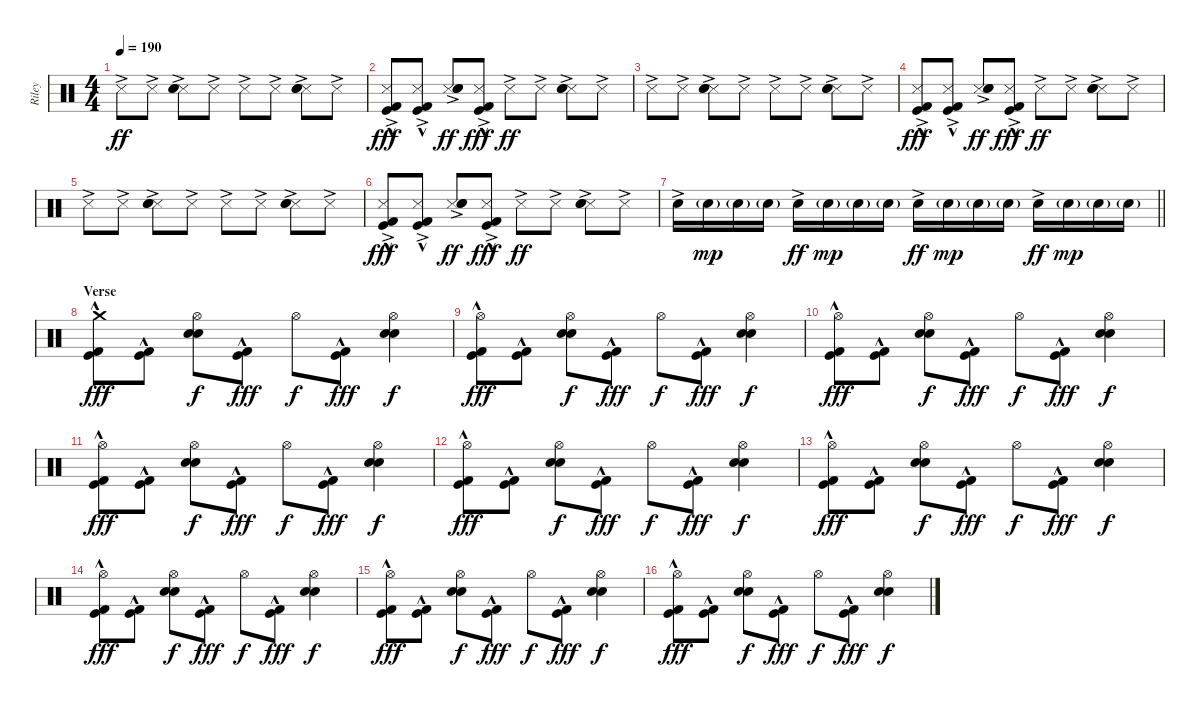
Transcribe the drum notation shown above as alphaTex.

\track ("Riley" "Riley") {instrument percussion}
\staff {score}
\articulation defaults
\ts (4 4)
\tempo 190
\clef neutral
\ks c "Snare (side stick) 3"{ac}.8{dy ff} "Snare (side stick) 3"{ac}.8
("Snare (side stick) 3"{ac} "Electric Snare (hit)" "Snare (hit) 2").8 "Snare (side stick) 3"{ac}.8 "Snare (side stick) 3"{ac}.8 "Snare (side stick) 3"{ac}.8 ("Snare (side stick) 3"{ac} "Electric Snare (hit)" "Snare (hit) 2").8 "Snare (side stick) 3"{ac}.8 |
("Snare (side stick) 3"{ac} "Kick (hit)"{hac} "Kick (hit) 2"{hac}).8{dy fff} ("Snare (side stick) 3"{ac} "Kick (hit)"{hac} "Kick (hit) 2"{hac}).8 ("Snare (side stick) 3"{ac} "Electric Snare (hit)" "Snare (hit) 2").8{dy ff} ("Snare (side stick) 3"{ac} "Kick (hit)"{hac} "Kick (hit) 2"{hac}).8{dy fff} "Snare (side stick) 3"{ac}.8{dy ff} "Snare (side stick) 3"{ac}.8 ("Snare (side stick) 3"{ac} "Electric Snare (hit)" "Snare (hit) 2").8 "Snare (side stick) 3"{ac}.8 |
"Snare (side stick) 3"{ac}.8 "Snare (side stick) 3"{ac}.8 ("Snare (side stick) 3"{ac} "Electric Snare (hit)" "Snare (hit) 2").8 "Snare (side stick) 3"{ac}.8 "Snare (side stick) 3"{ac}.8 "Snare (side stick) 3"{ac}.8 ("Snare (side stick) 3"{ac} "Electric Snare (hit)" "Snare (hit) 2").8 "Snare (side stick) 3"{ac}.8 |
("Snare (side stick) 3"{ac} "Kick (hit)"{hac} "Kick (hit) 2"{hac}).8{dy fff} ("Snare (side stick) 3"{ac} "Kick (hit)"{hac} "Kick (hit) 2"{hac}).8 ("Snare (side stick) 3"{ac} "Electric Snare (hit)" "Snare (hit) 2").8{dy ff} ("Snare (side stick) 3"{ac} "Kick (hit)"{hac} "Kick (hit) 2"{hac}).8{dy fff} "Snare (side stick) 3"{ac}.8{dy ff} "Snare (side stick) 3"{ac}.8 ("Snare (side stick) 3"{ac} "Electric Snare (hit)" "Snare (hit) 2").8 "Snare (side stick) 3"{ac}.8 |
"Snare (side stick) 3"{ac}.8 "Snare (side stick) 3"{ac}.8 ("Snare (side stick) 3"{ac} "Electric Snare (hit)" "Snare (hit) 2").8 "Snare (side stick) 3"{ac}.8 "Snare (side stick) 3"{ac}.8 "Snare (side stick) 3"{ac}.8 ("Snare (side stick) 3"{ac} "Electric Snare (hit)" "Snare (hit) 2").8 "Snare (side stick) 3"{ac}.8 |
("Snare (side stick) 3"{ac} "Kick (hit)"{hac} "Kick (hit) 2"{hac}).8{dy fff} ("Snare (side stick) 3"{ac} "Kick (hit)"{hac} "Kick (hit) 2"{hac}).8 ("Snare (side stick) 3"{ac} "Electric Snare (hit)" "Snare (hit) 2").8{dy ff} ("Snare (side stick) 3"{ac} "Kick (hit)"{hac} "Kick (hit) 2"{hac}).8{dy fff} "Snare (side stick) 3"{ac}.8{dy ff} "Snare (side stick) 3"{ac}.8 ("Snare (side stick) 3"{ac} "Electric Snare (hit)" "Snare (hit) 2").8 "Snare (side stick) 3"{ac}.8 |
\barLineRight lightlight "Electric Snare (hit)"{ac}.16 "Electric Snare (hit)"{g}.16{dy mp} "Electric Snare (hit)"{g}.16 "Electric Snare (hit)"{g}.16 "Electric Snare (hit)"{ac}.16{dy ff} "Electric Snare (hit)"{g}.16{dy mp} "Electric Snare (hit)"{g}.16 "Electric Snare (hit)"{g}.16 "Electric Snare (hit)"{ac}.16{dy ff} "Electric Snare (hit)"{g}.16{dy mp} "Electric Snare (hit)"{g}.16 "Electric Snare (hit)"{g}.16 "Electric Snare (hit)"{ac}.16{dy ff} "Electric Snare (hit)"{g}.16{dy mp} "Electric Snare (hit)"{g}.16 "Electric Snare (hit)"{g}.16
|
\section ("" "Verse")
("Crash medium (hit)" "Kick (hit)"{hac} "Kick (hit) 2"{hac}).8{dy fff} ("Kick (hit)"{hac} "Kick (hit) 2"{hac}).8 ("Hi-Hat (open)" "Electric Snare (hit)" "Snare (hit) 2").8{dy f} ("Kick (hit)"{hac} "Kick (hit) 2"{hac}).8{dy fff} "Hi-Hat (open)".8{dy f} ("Kick (hit)"{hac} "Kick (hit) 2"{hac}).8{dy fff} ("Hi-Hat (open)" "Electric Snare (hit)" "Snare (hit) 2").4{dy f} |
("Hi-Hat (open)" "Kick (hit)"{hac} "Kick (hit) 2"{hac}).8{dy fff} ("Kick (hit)"{hac} "Kick (hit) 2"{hac}).8 ("Hi-Hat (open)" "Electric Snare (hit)" "Snare (hit) 2").8{dy f} ("Kick (hit)"{hac} "Kick (hit) 2"{hac}).8{dy fff} "Hi-Hat (open)".8{dy f} ("Kick (hit)"{hac} "Kick (hit) 2"{hac}).8{dy fff} ("Hi-Hat (open)" "Electric Snare (hit)" "Snare (hit) 2").4{dy f} |
("Hi-Hat (open)" "Kick (hit)"{hac} "Kick (hit) 2"{hac}).8{dy fff} ("Kick (hit)"{hac} "Kick (hit) 2"{hac}).8 ("Hi-Hat (open)" "Electric Snare (hit)" "Snare (hit) 2").8{dy f} ("Kick (hit)"{hac} "Kick (hit) 2"{hac}).8{dy fff} "Hi-Hat (open)".8{dy f} ("Kick (hit)"{hac} "Kick (hit) 2"{hac}).8{dy fff} ("Hi-Hat (open)" "Electric Snare (hit)" "Snare (hit) 2").4{dy f} |
("Hi-Hat (open)" "Kick (hit)"{hac} "Kick (hit) 2"{hac}).8{dy fff} ("Kick (hit)"{hac} "Kick (hit) 2"{hac}).8 ("Hi-Hat (open)" "Electric Snare (hit)" "Snare (hit) 2").8{dy f} ("Kick (hit)"{hac} "Kick (hit) 2"{hac}).8{dy fff} "Hi-Hat (open)".8{dy f} ("Kick (hit)"{hac} "Kick (hit) 2"{hac}).8{dy fff} ("Hi-Hat (open)" "Electric Snare (hit)" "Snare (hit) 2").4{dy f} |
("Hi-Hat (open)" "Kick (hit)"{hac} "Kick (hit) 2"{hac}).8{dy fff} ("Kick (hit)"{hac} "Kick (hit) 2"{hac}).8 ("Hi-Hat (open)" "Electric Snare (hit)" "Snare (hit) 2").8{dy f} ("Kick (hit)"{hac} "Kick (hit) 2"{hac}).8{dy fff} "Hi-Hat (open)".8{dy f} ("Kick (hit)"{hac} "Kick (hit) 2"{hac}).8{dy fff} ("Hi-Hat (open)" "Electric Snare (hit)" "Snare (hit) 2").4{dy f} |
("Hi-Hat (open)" "Kick (hit)"{hac} "Kick (hit) 2"{hac}).8{dy fff} ("Kick (hit)"{hac} "Kick (hit) 2"{hac}).8 ("Hi-Hat (open)" "Electric Snare (hit)" "Snare (hit) 2").8{dy f} ("Kick (hit)"{hac} "Kick (hit) 2"{hac}).8{dy fff} "Hi-Hat (open)".8{dy f} ("Kick (hit)"{hac} "Kick (hit) 2"{hac}).8{dy fff} ("Hi-Hat (open)" "Electric Snare (hit)" "Snare (hit) 2").4{dy f} |
("Hi-Hat (open)" "Kick (hit)"{hac} "Kick (hit) 2"{hac}).8{dy fff} ("Kick (hit)"{hac} "Kick (hit) 2"{hac}).8 ("Hi-Hat (open)" "Electric Snare (hit)" "Snare (hit) 2").8{dy f} ("Kick (hit)"{hac} "Kick (hit) 2"{hac}).8{dy fff} "Hi-Hat (open)".8{dy f} ("Kick (hit)"{hac} "Kick (hit) 2"{hac}).8{dy fff} ("Hi-Hat (open)" "Electric Snare (hit)" "Snare (hit) 2").4{dy f} |
("Hi-Hat (open)" "Kick (hit)"{hac} "Kick (hit) 2"{hac}).8{dy fff} ("Kick (hit)"{hac} "Kick (hit) 2"{hac}).8 ("Hi-Hat (open)" "Electric Snare (hit)" "Snare (hit) 2").8{dy f} ("Kick (hit)"{hac} "Kick (hit) 2"{hac}).8{dy fff} "Hi-Hat (open)".8{dy f} ("Kick (hit)"{hac} "Kick (hit) 2"{hac}).8{dy fff} ("Hi-Hat (open)" "Electric Snare (hit)" "Snare (hit) 2").4{dy f} |
("Hi-Hat (open)" "Kick (hit)"{hac} "Kick (hit) 2"{hac}).8{dy fff} ("Kick (hit)"{hac} "Kick (hit) 2"{hac}).8 ("Hi-Hat (open)" "Electric Snare (hit)" "Snare (hit) 2").8{dy f} ("Kick (hit)"{hac} "Kick (hit) 2"{hac}).8{dy fff} "Hi-Hat (open)".8{dy f} ("Kick (hit)"{hac} "Kick (hit) 2"{hac}).8{dy fff} ("Hi-Hat (open)" "Electric Snare (hit)" "Snare (hit) 2").4{dy f}
